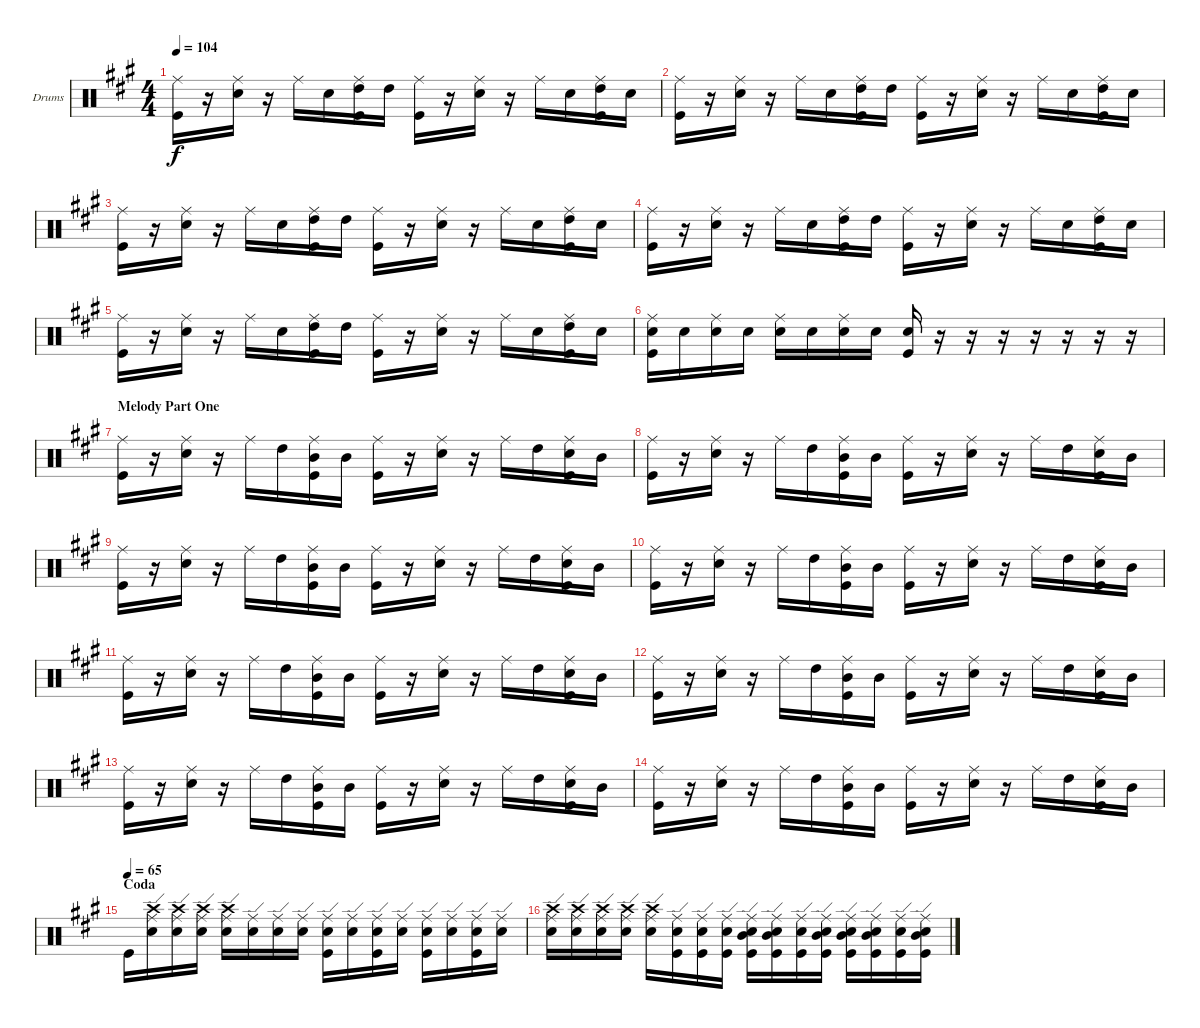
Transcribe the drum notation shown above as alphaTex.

\bracketExtendMode groupsimilarinstruments
\firstSystemTrackNameOrientation horizontal
\otherSystemsTrackNameOrientation horizontal
\track ("Drumkit" "Drums") {instrument percussion}
\staff {score}
\articulation defaults
\ts (4 4)
\tempo 104
\clef neutral
\ks a
("Ride (middle)" "Kick (hit)").16{dy f} r.16 ("Ride (middle)" "Snare (hit) 2").16 r.16 "Ride (middle)".16 "Snare (hit) 2".16 ("Ride (middle)" "High Tom (hit)" "Kick (hit)").16 "High Tom (hit)".16 ("Ride (middle)" "Kick (hit)").16 r.16 ("Ride (middle)" "Snare (hit) 2").16 r.16 "Ride (middle)".16 "Snare (hit) 2".16 ("Ride (middle)" "High Tom (hit)" "Kick (hit)").16 "Snare (hit) 2".16 |
("Ride (middle)" "Kick (hit)").16 r.16 ("Ride (middle)" "Snare (hit) 2").16 r.16 "Ride (middle)".16 "Snare (hit) 2".16 ("Ride (middle)" "High Tom (hit)" "Kick (hit)").16 "High Tom (hit)".16 ("Ride (middle)" "Kick (hit)").16 r.16 ("Ride (middle)" "Snare (hit) 2").16 r.16 "Ride (middle)".16 "Snare (hit) 2".16 ("Ride (middle)" "High Tom (hit)" "Kick (hit)").16 "Snare (hit) 2".16 |
("Ride (middle)" "Kick (hit)").16 r.16 ("Ride (middle)" "Snare (hit) 2").16 r.16 "Ride (middle)".16 "Snare (hit) 2".16 ("Ride (middle)" "High Tom (hit)" "Kick (hit)").16 "High Tom (hit)".16 ("Ride (middle)" "Kick (hit)").16 r.16 ("Ride (middle)" "Snare (hit) 2").16 r.16 "Ride (middle)".16 "Snare (hit) 2".16 ("Ride (middle)" "High Tom (hit)" "Kick (hit)").16 "Snare (hit) 2".16 |
("Ride (middle)" "Kick (hit)").16 r.16 ("Ride (middle)" "Snare (hit) 2").16 r.16 "Ride (middle)".16 "Snare (hit) 2".16 ("Ride (middle)" "High Tom (hit)" "Kick (hit)").16 "High Tom (hit)".16 ("Ride (middle)" "Kick (hit)").16 r.16 ("Ride (middle)" "Snare (hit) 2").16 r.16 "Ride (middle)".16 "Snare (hit) 2".16 ("Ride (middle)" "High Tom (hit)" "Kick (hit)").16 "Snare (hit) 2".16 |
("Ride (middle)" "Kick (hit)").16 r.16 ("Ride (middle)" "Snare (hit) 2").16 r.16 "Ride (middle)".16 "Snare (hit) 2".16 ("Ride (middle)" "High Tom (hit)" "Kick (hit)").16 "High Tom (hit)".16 ("Ride (middle)" "Kick (hit)").16 r.16 ("Ride (middle)" "Snare (hit) 2").16 r.16 "Ride (middle)".16 "Snare (hit) 2".16 ("Ride (middle)" "High Tom (hit)" "Kick (hit)").16 "Snare (hit) 2".16 |
("Ride (middle)" "Snare (hit) 2" "Kick (hit)").16 "Snare (hit) 2".16 ("Ride (middle)" "Snare (hit) 2").16 "Snare (hit) 2".16 ("Ride (middle)" "Snare (hit) 2").16 "Snare (hit) 2".16 ("Ride (middle)" "Snare (hit) 2").16 "Snare (hit) 2".16 ("Snare (hit) 2" "Kick (hit)").16 r.16 r.16 r.16 r.16 r.16 r.16 r.16 |
\section ("" "Melody Part One")
("Ride (middle)" "Kick (hit)").16 r.16 ("Ride (middle)" "Snare (hit) 2").16 r.16 "Ride (middle)".16 "High Tom (hit)".16 ("Ride (middle)" "Mid Tom (hit)" "Kick (hit)").16 "Mid Tom (hit)".16 ("Ride (middle)" "Kick (hit)").16 r.16 ("Ride (middle)" "Snare (hit) 2").16 r.16 "Ride (middle)".16 "High Tom (hit)".16 ("Ride (middle)" "Snare (hit) 2" "Kick (hit)").16 "Mid Tom (hit)".16 |
("Ride (middle)" "Kick (hit)").16 r.16 ("Ride (middle)" "Snare (hit) 2").16 r.16 "Ride (middle)".16 "High Tom (hit)".16 ("Ride (middle)" "Mid Tom (hit)" "Kick (hit)").16 "Mid Tom (hit)".16 ("Ride (middle)" "Kick (hit)").16 r.16 ("Ride (middle)" "Snare (hit) 2").16 r.16 "Ride (middle)".16 "High Tom (hit)".16 ("Ride (middle)" "Snare (hit) 2" "Kick (hit)").16 "Mid Tom (hit)".16 |
("Ride (middle)" "Kick (hit)").16 r.16 ("Ride (middle)" "Snare (hit) 2").16 r.16 "Ride (middle)".16 "High Tom (hit)".16 ("Ride (middle)" "Mid Tom (hit)" "Kick (hit)").16 "Mid Tom (hit)".16 ("Ride (middle)" "Kick (hit)").16 r.16 ("Ride (middle)" "Snare (hit) 2").16 r.16 "Ride (middle)".16 "High Tom (hit)".16 ("Ride (middle)" "Snare (hit) 2" "Kick (hit)").16 "Mid Tom (hit)".16 |
("Ride (middle)" "Kick (hit)").16 r.16 ("Ride (middle)" "Snare (hit) 2").16 r.16 "Ride (middle)".16 "High Tom (hit)".16 ("Ride (middle)" "Mid Tom (hit)" "Kick (hit)").16 "Mid Tom (hit)".16 ("Ride (middle)" "Kick (hit)").16 r.16 ("Ride (middle)" "Snare (hit) 2").16 r.16 "Ride (middle)".16 "High Tom (hit)".16 ("Ride (middle)" "Snare (hit) 2" "Kick (hit)").16 "Mid Tom (hit)".16 |
("Ride (middle)" "Kick (hit)").16 r.16 ("Ride (middle)" "Snare (hit) 2").16 r.16 "Ride (middle)".16 "High Tom (hit)".16 ("Ride (middle)" "Mid Tom (hit)" "Kick (hit)").16 "Mid Tom (hit)".16 ("Ride (middle)" "Kick (hit)").16 r.16 ("Ride (middle)" "Snare (hit) 2").16 r.16 "Ride (middle)".16 "High Tom (hit)".16 ("Ride (middle)" "Snare (hit) 2" "Kick (hit)").16 "Mid Tom (hit)".16 |
("Ride (middle)" "Kick (hit)").16 r.16 ("Ride (middle)" "Snare (hit) 2").16 r.16 "Ride (middle)".16 "High Tom (hit)".16 ("Ride (middle)" "Mid Tom (hit)" "Kick (hit)").16 "Mid Tom (hit)".16 ("Ride (middle)" "Kick (hit)").16 r.16 ("Ride (middle)" "Snare (hit) 2").16 r.16 "Ride (middle)".16 "High Tom (hit)".16 ("Ride (middle)" "Snare (hit) 2" "Kick (hit)").16 "Mid Tom (hit)".16 |
("Ride (middle)" "Kick (hit)").16 r.16 ("Ride (middle)" "Snare (hit) 2").16 r.16 "Ride (middle)".16 "High Tom (hit)".16 ("Ride (middle)" "Mid Tom (hit)" "Kick (hit)").16 "Mid Tom (hit)".16 ("Ride (middle)" "Kick (hit)").16 r.16 ("Ride (middle)" "Snare (hit) 2").16 r.16 "Ride (middle)".16 "High Tom (hit)".16 ("Ride (middle)" "Snare (hit) 2" "Kick (hit)").16 "Mid Tom (hit)".16 |
("Ride (middle)" "Kick (hit)").16 r.16 ("Ride (middle)" "Snare (hit) 2").16 r.16 "Ride (middle)".16 "High Tom (hit)".16 ("Ride (middle)" "Mid Tom (hit)" "Kick (hit)").16 "Mid Tom (hit)".16 ("Ride (middle)" "Kick (hit)").16 r.16 ("Ride (middle)" "Snare (hit) 2").16 r.16 "Ride (middle)".16 "High Tom (hit)".16 ("Ride (middle)" "Snare (hit) 2" "Kick (hit)").16 "Mid Tom (hit)".16 |
\section ("" "Coda")
\tempo (65)
"Kick (hit)".16 ("Ride (edge)" "Crash high (hit)" "Snare (hit) 2").16 ("Ride (edge)" "Crash high (hit)" "Snare (hit) 2").16 ("Ride (edge)" "Crash high (hit)" "Snare (hit) 2").16 ("Ride (edge)" "Crash high (hit)" "Snare (hit) 2").16 ("Ride (edge)" "Snare (hit) 2").16 ("Ride (edge)" "Snare (hit) 2").16 ("Ride (edge)" "Snare (hit) 2").16 ("Ride (edge)" "Snare (hit) 2" "Kick (hit)").16 ("Ride (edge)" "Snare (hit) 2").16 ("Ride (edge)" "Snare (hit) 2" "Kick (hit)").16 ("Ride (edge)" "Snare (hit) 2").16 ("Ride (edge)" "Snare (hit) 2" "Kick (hit)").16 ("Ride (edge)" "Snare (hit) 2").16 ("Ride (edge)" "Snare (hit) 2" "Kick (hit)").16 ("Ride (edge)" "Snare (hit) 2").16 |
("Ride (edge)" "Crash high (hit)" "Snare (hit) 2").16 ("Ride (edge)" "Crash high (hit)" "Snare (hit) 2").16 ("Ride (edge)" "Crash high (hit)" "Snare (hit) 2").16 ("Ride (edge)" "Crash high (hit)" "Snare (hit) 2").16 ("Ride (edge)" "Crash high (hit)" "Snare (hit) 2").16 ("Ride (edge)" "Snare (hit) 2" "Kick (hit)").16 ("Ride (edge)" "Snare (hit) 2" "Kick (hit)").16 ("Ride (edge)" "Snare (hit) 2" "Kick (hit)").16 ("Ride (edge)" "Mid Tom (hit)" "Snare (hit) 2" "Kick (hit)").16 ("Ride (edge)" "Mid Tom (hit)" "Snare (hit) 2" "Kick (hit)").16 ("Ride (edge)" "Snare (hit) 2" "Kick (hit)").16 ("Ride (edge)" "Mid Tom (hit)" "Snare (hit) 2" "Kick (hit)").16 ("Ride (edge)" "Mid Tom (hit)" "Snare (hit) 2" "Kick (hit)").16 ("Ride (edge)" "Mid Tom (hit)" "Snare (hit) 2" "Kick (hit)").16 ("Ride (edge)" "Snare (hit) 2" "Kick (hit)").16 ("Ride (edge)" "Mid Tom (hit)" "Snare (hit) 2" "Kick (hit)").16
